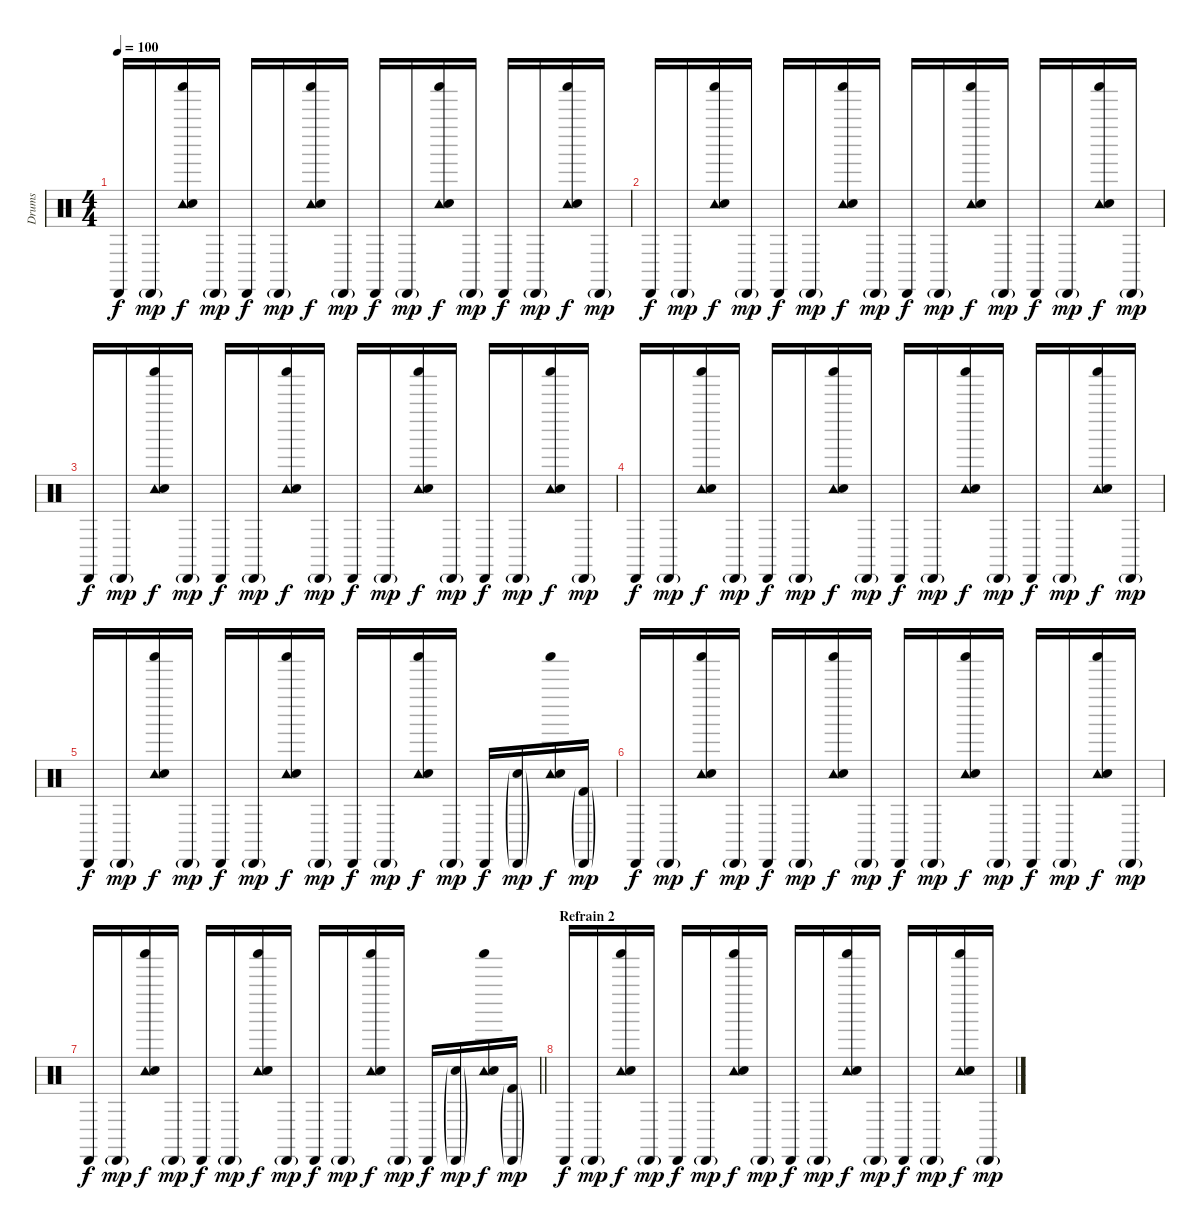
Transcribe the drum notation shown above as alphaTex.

\track ("Drums" "Drums") {instrument percussion}
\staff {score}
\articulation defaults
\ts (4 4)
\tempo 100
\clef neutral
\ks c "Cabasa (hit)".16{dy f} "Cabasa (hit)"{g}.16{dy mp}
("Tambourine (hit)" "Shaker (hit)" "Electric Snare (hit)").16{dy f} "Cabasa (hit)"{g}.16{dy mp} "Cabasa (hit)".16{dy f} "Cabasa (hit)"{g}.16{dy mp} ("Tambourine (hit)" "Shaker (hit)" "Electric Snare (hit)").16{dy f} "Cabasa (hit)"{g}.16{dy mp} "Cabasa (hit)".16{dy f} "Cabasa (hit)"{g}.16{dy mp} ("Tambourine (hit)" "Shaker (hit)" "Electric Snare (hit)").16{dy f} "Cabasa (hit)"{g}.16{dy mp} "Cabasa (hit)".16{dy f} "Cabasa (hit)"{g}.16{dy mp} ("Tambourine (hit)" "Shaker (hit)" "Electric Snare (hit)").16{dy f} "Cabasa (hit)"{g}.16{dy mp} |
"Cabasa (hit)".16{dy f} "Cabasa (hit)"{g}.16{dy mp} ("Tambourine (hit)" "Shaker (hit)" "Electric Snare (hit)").16{dy f} "Cabasa (hit)"{g}.16{dy mp} "Cabasa (hit)".16{dy f} "Cabasa (hit)"{g}.16{dy mp} ("Tambourine (hit)" "Shaker (hit)" "Electric Snare (hit)").16{dy f} "Cabasa (hit)"{g}.16{dy mp} "Cabasa (hit)".16{dy f} "Cabasa (hit)"{g}.16{dy mp} ("Tambourine (hit)" "Shaker (hit)" "Electric Snare (hit)").16{dy f} "Cabasa (hit)"{g}.16{dy mp} "Cabasa (hit)".16{dy f} "Cabasa (hit)"{g}.16{dy mp} ("Tambourine (hit)" "Shaker (hit)" "Electric Snare (hit)").16{dy f} "Cabasa (hit)"{g}.16{dy mp} |
"Cabasa (hit)".16{dy f} "Cabasa (hit)"{g}.16{dy mp} ("Tambourine (hit)" "Shaker (hit)" "Electric Snare (hit)").16{dy f} "Cabasa (hit)"{g}.16{dy mp} "Cabasa (hit)".16{dy f} "Cabasa (hit)"{g}.16{dy mp} ("Tambourine (hit)" "Shaker (hit)" "Electric Snare (hit)").16{dy f} "Cabasa (hit)"{g}.16{dy mp} "Cabasa (hit)".16{dy f} "Cabasa (hit)"{g}.16{dy mp} ("Tambourine (hit)" "Shaker (hit)" "Electric Snare (hit)").16{dy f} "Cabasa (hit)"{g}.16{dy mp} "Cabasa (hit)".16{dy f} "Cabasa (hit)"{g}.16{dy mp} ("Tambourine (hit)" "Shaker (hit)" "Electric Snare (hit)").16{dy f} "Cabasa (hit)"{g}.16{dy mp} |
"Cabasa (hit)".16{dy f} "Cabasa (hit)"{g}.16{dy mp} ("Tambourine (hit)" "Shaker (hit)" "Electric Snare (hit)").16{dy f} "Cabasa (hit)"{g}.16{dy mp} "Cabasa (hit)".16{dy f} "Cabasa (hit)"{g}.16{dy mp} ("Tambourine (hit)" "Shaker (hit)" "Electric Snare (hit)").16{dy f} "Cabasa (hit)"{g}.16{dy mp} "Cabasa (hit)".16{dy f} "Cabasa (hit)"{g}.16{dy mp} ("Tambourine (hit)" "Shaker (hit)" "Electric Snare (hit)").16{dy f} "Cabasa (hit)"{g}.16{dy mp} "Cabasa (hit)".16{dy f} "Cabasa (hit)"{g}.16{dy mp} ("Tambourine (hit)" "Shaker (hit)" "Electric Snare (hit)").16{dy f} "Cabasa (hit)"{g}.16{dy mp} |
"Cabasa (hit)".16{dy f} "Cabasa (hit)"{g}.16{dy mp} ("Tambourine (hit)" "Shaker (hit)" "Electric Snare (hit)").16{dy f} "Cabasa (hit)"{g}.16{dy mp} "Cabasa (hit)".16{dy f} "Cabasa (hit)"{g}.16{dy mp} ("Tambourine (hit)" "Shaker (hit)" "Electric Snare (hit)").16{dy f} "Cabasa (hit)"{g}.16{dy mp} "Cabasa (hit)".16{dy f} "Cabasa (hit)"{g}.16{dy mp} ("Tambourine (hit)" "Shaker (hit)" "Electric Snare (hit)").16{dy f} "Cabasa (hit)"{g}.16{dy mp} "Cabasa (hit)".16{dy f} ("Cabasa (hit)"{g} "Electric Snare (hit)"{g}).16{dy mp} ("Tambourine (hit)" "Shaker (hit)" "Electric Snare (hit)").16{dy f} ("Cabasa (hit)"{g} "Kick (hit) 2"{g}).16{dy mp} |
"Cabasa (hit)".16{dy f} "Cabasa (hit)"{g}.16{dy mp} ("Tambourine (hit)" "Shaker (hit)" "Electric Snare (hit)").16{dy f} "Cabasa (hit)"{g}.16{dy mp} "Cabasa (hit)".16{dy f} "Cabasa (hit)"{g}.16{dy mp} ("Tambourine (hit)" "Shaker (hit)" "Electric Snare (hit)").16{dy f} "Cabasa (hit)"{g}.16{dy mp} "Cabasa (hit)".16{dy f} "Cabasa (hit)"{g}.16{dy mp} ("Tambourine (hit)" "Shaker (hit)" "Electric Snare (hit)").16{dy f} "Cabasa (hit)"{g}.16{dy mp} "Cabasa (hit)".16{dy f} "Cabasa (hit)"{g}.16{dy mp} ("Tambourine (hit)" "Shaker (hit)" "Electric Snare (hit)").16{dy f} "Cabasa (hit)"{g}.16{dy mp} |
\barLineRight lightlight "Cabasa (hit)".16{dy f} "Cabasa (hit)"{g}.16{dy mp}
("Tambourine (hit)" "Shaker (hit)" "Electric Snare (hit)").16{dy f} "Cabasa (hit)"{g}.16{dy mp} "Cabasa (hit)".16{dy f} "Cabasa (hit)"{g}.16{dy mp} ("Tambourine (hit)" "Shaker (hit)" "Electric Snare (hit)").16{dy f} "Cabasa (hit)"{g}.16{dy mp} "Cabasa (hit)".16{dy f} "Cabasa (hit)"{g}.16{dy mp} ("Tambourine (hit)" "Shaker (hit)" "Electric Snare (hit)").16{dy f} "Cabasa (hit)"{g}.16{dy mp} "Cabasa (hit)".16{dy f} ("Cabasa (hit)"{g} "Electric Snare (hit)"{g}).16{dy mp} ("Tambourine (hit)" "Shaker (hit)" "Electric Snare (hit)").16{dy f} ("Cabasa (hit)"{g} "Kick (hit) 2"{g}).16{dy mp} |
\section ("" "Refrain 2")
"Cabasa (hit)".16{dy f} "Cabasa (hit)"{g}.16{dy mp} ("Tambourine (hit)" "Shaker (hit)" "Electric Snare (hit)").16{dy f} "Cabasa (hit)"{g}.16{dy mp} "Cabasa (hit)".16{dy f} "Cabasa (hit)"{g}.16{dy mp} ("Tambourine (hit)" "Shaker (hit)" "Electric Snare (hit)").16{dy f} "Cabasa (hit)"{g}.16{dy mp} "Cabasa (hit)".16{dy f} "Cabasa (hit)"{g}.16{dy mp} ("Tambourine (hit)" "Shaker (hit)" "Electric Snare (hit)").16{dy f} "Cabasa (hit)"{g}.16{dy mp} "Cabasa (hit)".16{dy f} "Cabasa (hit)"{g}.16{dy mp} ("Tambourine (hit)" "Shaker (hit)" "Electric Snare (hit)").16{dy f} "Cabasa (hit)"{g}.16{dy mp}
